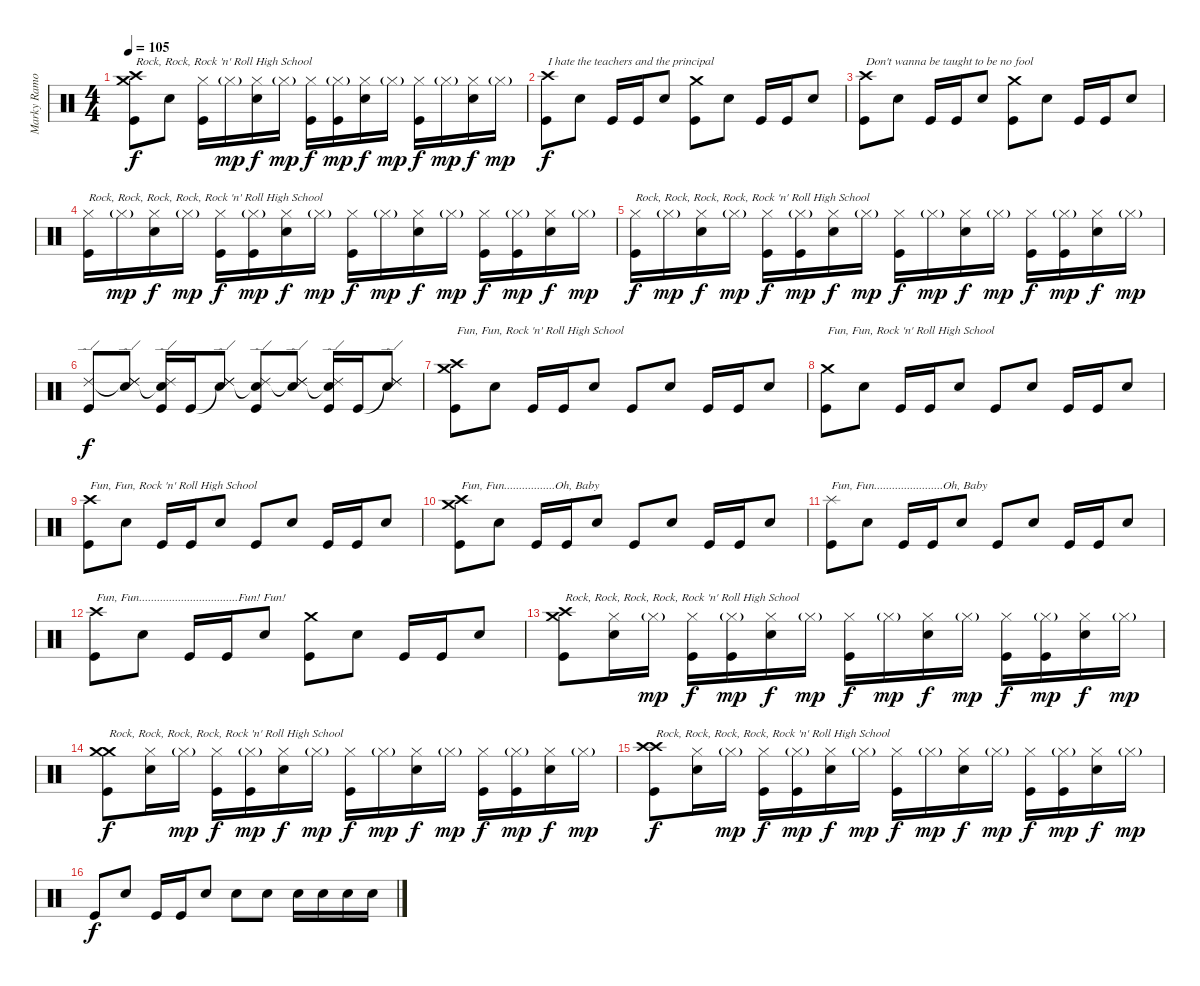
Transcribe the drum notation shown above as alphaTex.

\track ("Marky Ramone - Drums" "Marky Ramo") {instrument percussion}
\staff {score}
\articulation defaults
\ts (4 4)
\tempo 105
\clef neutral
\ks c
("Crash high (hit)" "Crash medium (hit)" "Kick (hit)").8{txt "Rock, Rock, Rock 'n' Roll High School" dy f} "Snare (hit) 2".8 ("Hi-Hat (closed)" "Kick (hit)").16 "Hi-Hat (closed)"{g}.16{dy mp} ("Hi-Hat (closed)" "Snare (hit) 2").16{dy f} "Hi-Hat (closed)"{g}.16{dy mp} ("Hi-Hat (closed)" "Kick (hit)").16{dy f} ("Hi-Hat (closed)"{g} "Kick (hit)").16{dy mp} ("Hi-Hat (closed)" "Snare (hit) 2").16{dy f} "Hi-Hat (closed)"{g}.16{dy mp} ("Hi-Hat (closed)" "Kick (hit)").16{dy f} "Hi-Hat (closed)"{g}.16{dy mp} ("Hi-Hat (closed)" "Snare (hit) 2").16{dy f} "Hi-Hat (closed)"{g}.16{dy mp} |
("Crash high (hit)" "Kick (hit)").8{txt "I hate the teachers and the principal" dy f} "Snare (hit) 2".8 "Kick (hit)".16 "Kick (hit)".16 "Snare (hit) 2".8 ("Crash medium (hit)" "Kick (hit)").8 "Snare (hit) 2".8 "Kick (hit)".16 "Kick (hit)".16 "Snare (hit) 2".8 |
("Crash high (hit)" "Kick (hit)").8{txt "Don't wanna be taught to be no fool"} "Snare (hit) 2".8 "Kick (hit)".16 "Kick (hit)".16 "Snare (hit) 2".8 ("Crash medium (hit)" "Kick (hit)").8 "Snare (hit) 2".8 "Kick (hit)".16 "Kick (hit)".16 "Snare (hit) 2".8 |
("Hi-Hat (closed)" "Kick (hit)").16{txt "Rock, Rock, Rock, Rock, Rock 'n' Roll High School"} "Hi-Hat (closed)"{g}.16{dy mp} ("Hi-Hat (closed)" "Snare (hit) 2").16{dy f} "Hi-Hat (closed)"{g}.16{dy mp} ("Hi-Hat (closed)" "Kick (hit)").16{dy f} ("Hi-Hat (closed)"{g} "Kick (hit)").16{dy mp} ("Hi-Hat (closed)" "Snare (hit) 2").16{dy f} "Hi-Hat (closed)"{g}.16{dy mp} ("Hi-Hat (closed)" "Kick (hit)").16{dy f} "Hi-Hat (closed)"{g}.16{dy mp} ("Hi-Hat (closed)" "Snare (hit) 2").16{dy f} "Hi-Hat (closed)"{g}.16{dy mp} ("Hi-Hat (closed)" "Kick (hit)").16{dy f} ("Hi-Hat (closed)"{g} "Kick (hit)").16{dy mp} ("Hi-Hat (closed)" "Snare (hit) 2").16{dy f} "Hi-Hat (closed)"{g}.16{dy mp} |
("Hi-Hat (closed)" "Kick (hit)").16{txt "Rock, Rock, Rock, Rock, Rock 'n' Roll High School" dy f} "Hi-Hat (closed)"{g}.16{dy mp} ("Hi-Hat (closed)" "Snare (hit) 2").16{dy f} "Hi-Hat (closed)"{g}.16{dy mp} ("Hi-Hat (closed)" "Kick (hit)").16{dy f} ("Hi-Hat (closed)"{g} "Kick (hit)").16{dy mp} ("Hi-Hat (closed)" "Snare (hit) 2").16{dy f} "Hi-Hat (closed)"{g}.16{dy mp} ("Hi-Hat (closed)" "Kick (hit)").16{dy f} "Hi-Hat (closed)"{g}.16{dy mp} ("Hi-Hat (closed)" "Snare (hit) 2").16{dy f} "Hi-Hat (closed)"{g}.16{dy mp} ("Hi-Hat (closed)" "Kick (hit)").16{dy f} ("Hi-Hat (closed)"{g} "Kick (hit)").16{dy mp} ("Hi-Hat (closed)" "Snare (hit) 2").16{dy f} "Hi-Hat (closed)"{g}.16{dy mp} |
("Ride (edge) 2" "Kick (hit)").8{dy f} ("Ride (edge) 2"{t} "Ride (edge) 2" "Snare (hit) 2").8 ("Ride (edge) 2" "Snare (hit)"{t} "Kick (hit)").16 "Kick (hit)".16 ("Ride (edge) 2"{t} "Ride (edge) 2" "Snare (hit) 2").8 ("Ride (edge) 2" "Snare (hit)"{t} "Kick (hit)").8 ("Ride (edge) 2"{t} "Ride (edge) 2" "Snare (hit) 2").8 ("Ride (edge) 2" "Snare (hit)"{t} "Kick (hit)").16 "Kick (hit)".16 ("Ride (edge) 2"{t} "Ride (edge) 2" "Snare (hit) 2").8 |
("Crash medium (hit)" "Crash high (hit)" "Kick (hit)").8{txt "Fun, Fun, Rock 'n' Roll High School"} "Snare (hit) 2".8 "Kick (hit)".16 "Kick (hit)".16 "Snare (hit) 2".8 "Kick (hit)".8 "Snare (hit) 2".8 "Kick (hit)".16 "Kick (hit)".16 "Snare (hit) 2".8 |
("Crash medium (hit)" "Kick (hit)").8{txt "Fun, Fun, Rock 'n' Roll High School"} "Snare (hit) 2".8 "Kick (hit)".16 "Kick (hit)".16 "Snare (hit) 2".8 "Kick (hit)".8 "Snare (hit) 2".8 "Kick (hit)".16 "Kick (hit)".16 "Snare (hit) 2".8 |
("Crash high (hit)" "Kick (hit)").8{txt "Fun, Fun, Rock 'n' Roll High School"} "Snare (hit) 2".8 "Kick (hit)".16 "Kick (hit)".16 "Snare (hit) 2".8 "Kick (hit)".8 "Snare (hit) 2".8 "Kick (hit)".16 "Kick (hit)".16 "Snare (hit) 2".8 |
("Crash medium (hit)" "Crash high (hit)" "Kick (hit)").8{txt "Fun, Fun.................Oh, Baby"} "Snare (hit) 2".8 "Kick (hit)".16 "Kick (hit)".16 "Snare (hit) 2".8 "Kick (hit)".8 "Snare (hit) 2".8 "Kick (hit)".16 "Kick (hit)".16 "Snare (hit) 2".8 |
("Splash (hit)" "Kick (hit)").8{txt "Fun, Fun.......................Oh, Baby"} "Snare (hit) 2".8 "Kick (hit)".16 "Kick (hit)".16 "Snare (hit) 2".8 "Kick (hit)".8 "Snare (hit) 2".8 "Kick (hit)".16 "Kick (hit)".16 "Snare (hit) 2".8 |
("Crash high (hit)" "Kick (hit)").8{txt "Fun, Fun.................................Fun! Fun!"} "Snare (hit) 2".8 "Kick (hit)".16 "Kick (hit)".16 "Snare (hit) 2".8 ("Crash medium (hit)" "Kick (hit)").8 "Snare (hit) 2".8 "Kick (hit)".16 "Kick (hit)".16 "Snare (hit) 2".8 |
("Crash medium (hit)" "Crash high (hit)" "Kick (hit)").8{txt "Rock, Rock, Rock, Rock, Rock 'n' Roll High School"} ("Hi-Hat (closed)" "Snare (hit) 2").16 "Hi-Hat (closed)"{g}.16{dy mp} ("Hi-Hat (closed)" "Kick (hit)").16{dy f} ("Hi-Hat (closed)"{g} "Kick (hit)").16{dy mp} ("Hi-Hat (closed)" "Snare (hit) 2").16{dy f} "Hi-Hat (closed)"{g}.16{dy mp} ("Hi-Hat (closed)" "Kick (hit)").16{dy f} "Hi-Hat (closed)"{g}.16{dy mp} ("Hi-Hat (closed)" "Snare (hit) 2").16{dy f} "Hi-Hat (closed)"{g}.16{dy mp} ("Hi-Hat (closed)" "Kick (hit)").16{dy f} ("Hi-Hat (closed)"{g} "Kick (hit)").16{dy mp} ("Hi-Hat (closed)" "Snare (hit) 2").16{dy f} "Hi-Hat (closed)"{g}.16{dy mp} |
("Crash medium (hit)" "Crash medium (hit)" "Kick (hit)").8{txt "Rock, Rock, Rock, Rock, Rock 'n' Roll High School" dy f} ("Hi-Hat (closed)" "Snare (hit) 2").16 "Hi-Hat (closed)"{g}.16{dy mp} ("Hi-Hat (closed)" "Kick (hit)").16{dy f} ("Hi-Hat (closed)"{g} "Kick (hit)").16{dy mp} ("Hi-Hat (closed)" "Snare (hit) 2").16{dy f} "Hi-Hat (closed)"{g}.16{dy mp} ("Hi-Hat (closed)" "Kick (hit)").16{dy f} "Hi-Hat (closed)"{g}.16{dy mp} ("Hi-Hat (closed)" "Snare (hit) 2").16{dy f} "Hi-Hat (closed)"{g}.16{dy mp} ("Hi-Hat (closed)" "Kick (hit)").16{dy f} ("Hi-Hat (closed)"{g} "Kick (hit)").16{dy mp} ("Hi-Hat (closed)" "Snare (hit) 2").16{dy f} "Hi-Hat (closed)"{g}.16{dy mp} |
("Crash high (hit)" "Crash high (hit)" "Kick (hit)").8{txt "Rock, Rock, Rock, Rock, Rock 'n' Roll High School" dy f} ("Hi-Hat (closed)" "Snare (hit) 2").16 "Hi-Hat (closed)"{g}.16{dy mp} ("Hi-Hat (closed)" "Kick (hit)").16{dy f} ("Hi-Hat (closed)"{g} "Kick (hit)").16{dy mp} ("Hi-Hat (closed)" "Snare (hit) 2").16{dy f} "Hi-Hat (closed)"{g}.16{dy mp} ("Hi-Hat (closed)" "Kick (hit)").16{dy f} "Hi-Hat (closed)"{g}.16{dy mp} ("Hi-Hat (closed)" "Snare (hit) 2").16{dy f} "Hi-Hat (closed)"{g}.16{dy mp} ("Hi-Hat (closed)" "Kick (hit)").16{dy f} ("Hi-Hat (closed)"{g} "Kick (hit)").16{dy mp} ("Hi-Hat (closed)" "Snare (hit) 2").16{dy f} "Hi-Hat (closed)"{g}.16{dy mp} |
"Kick (hit)".8{dy f} "Snare (hit) 2".8 "Kick (hit)".16 "Kick (hit)".16 "Snare (hit) 2".8 "Snare (hit) 2".8 "Snare (hit) 2".8 "Snare (hit) 2".16 "Snare (hit) 2".16 "Snare (hit) 2".16 "Snare (hit) 2".16
